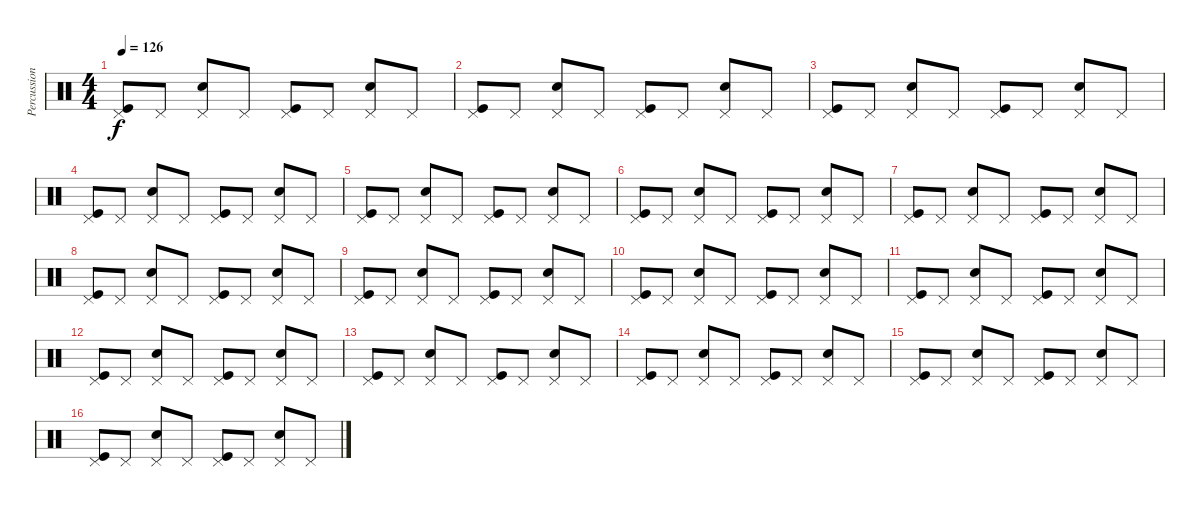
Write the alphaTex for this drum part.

\track ("Percussion" "Percussion") {instrument percussion}
\staff {score}
\articulation defaults
\ts (4 4)
\tempo 126
\clef neutral
\ks c
("Pedal Hi-Hat (hit)" "Kick (hit)").8{dy f} "Pedal Hi-Hat (hit)".8 ("Pedal Hi-Hat (hit)" "Snare (hit) 2").8 "Pedal Hi-Hat (hit)".8 ("Pedal Hi-Hat (hit)" "Kick (hit)").8 "Pedal Hi-Hat (hit)".8 ("Pedal Hi-Hat (hit)" "Snare (hit) 2").8 "Pedal Hi-Hat (hit)".8 |
("Pedal Hi-Hat (hit)" "Kick (hit)").8 "Pedal Hi-Hat (hit)".8 ("Pedal Hi-Hat (hit)" "Snare (hit) 2").8 "Pedal Hi-Hat (hit)".8 ("Pedal Hi-Hat (hit)" "Kick (hit)").8 "Pedal Hi-Hat (hit)".8 ("Pedal Hi-Hat (hit)" "Snare (hit) 2").8 "Pedal Hi-Hat (hit)".8 |
("Pedal Hi-Hat (hit)" "Kick (hit)").8 "Pedal Hi-Hat (hit)".8 ("Pedal Hi-Hat (hit)" "Snare (hit) 2").8 "Pedal Hi-Hat (hit)".8 ("Pedal Hi-Hat (hit)" "Kick (hit)").8 "Pedal Hi-Hat (hit)".8 ("Pedal Hi-Hat (hit)" "Snare (hit) 2").8 "Pedal Hi-Hat (hit)".8 |
("Pedal Hi-Hat (hit)" "Kick (hit)").8 "Pedal Hi-Hat (hit)".8 ("Pedal Hi-Hat (hit)" "Snare (hit) 2").8 "Pedal Hi-Hat (hit)".8 ("Pedal Hi-Hat (hit)" "Kick (hit)").8 "Pedal Hi-Hat (hit)".8 ("Pedal Hi-Hat (hit)" "Snare (hit) 2").8 "Pedal Hi-Hat (hit)".8 |
("Pedal Hi-Hat (hit)" "Kick (hit)").8 "Pedal Hi-Hat (hit)".8 ("Pedal Hi-Hat (hit)" "Snare (hit) 2").8 "Pedal Hi-Hat (hit)".8 ("Pedal Hi-Hat (hit)" "Kick (hit)").8 "Pedal Hi-Hat (hit)".8 ("Pedal Hi-Hat (hit)" "Snare (hit) 2").8 "Pedal Hi-Hat (hit)".8 |
("Pedal Hi-Hat (hit)" "Kick (hit)").8 "Pedal Hi-Hat (hit)".8 ("Pedal Hi-Hat (hit)" "Snare (hit) 2").8 "Pedal Hi-Hat (hit)".8 ("Pedal Hi-Hat (hit)" "Kick (hit)").8 "Pedal Hi-Hat (hit)".8 ("Pedal Hi-Hat (hit)" "Snare (hit) 2").8 "Pedal Hi-Hat (hit)".8 |
("Pedal Hi-Hat (hit)" "Kick (hit)").8 "Pedal Hi-Hat (hit)".8 ("Pedal Hi-Hat (hit)" "Snare (hit) 2").8 "Pedal Hi-Hat (hit)".8 ("Pedal Hi-Hat (hit)" "Kick (hit)").8 "Pedal Hi-Hat (hit)".8 ("Pedal Hi-Hat (hit)" "Snare (hit) 2").8 "Pedal Hi-Hat (hit)".8 |
("Pedal Hi-Hat (hit)" "Kick (hit)").8 "Pedal Hi-Hat (hit)".8 ("Pedal Hi-Hat (hit)" "Snare (hit) 2").8 "Pedal Hi-Hat (hit)".8 ("Pedal Hi-Hat (hit)" "Kick (hit)").8 "Pedal Hi-Hat (hit)".8 ("Pedal Hi-Hat (hit)" "Snare (hit) 2").8 "Pedal Hi-Hat (hit)".8 |
("Pedal Hi-Hat (hit)" "Kick (hit)").8 "Pedal Hi-Hat (hit)".8 ("Pedal Hi-Hat (hit)" "Snare (hit) 2").8 "Pedal Hi-Hat (hit)".8 ("Pedal Hi-Hat (hit)" "Kick (hit)").8 "Pedal Hi-Hat (hit)".8 ("Pedal Hi-Hat (hit)" "Snare (hit) 2").8 "Pedal Hi-Hat (hit)".8 |
("Pedal Hi-Hat (hit)" "Kick (hit)").8 "Pedal Hi-Hat (hit)".8 ("Pedal Hi-Hat (hit)" "Snare (hit) 2").8 "Pedal Hi-Hat (hit)".8 ("Pedal Hi-Hat (hit)" "Kick (hit)").8 "Pedal Hi-Hat (hit)".8 ("Pedal Hi-Hat (hit)" "Snare (hit) 2").8 "Pedal Hi-Hat (hit)".8 |
("Pedal Hi-Hat (hit)" "Kick (hit)").8 "Pedal Hi-Hat (hit)".8 ("Pedal Hi-Hat (hit)" "Snare (hit) 2").8 "Pedal Hi-Hat (hit)".8 ("Pedal Hi-Hat (hit)" "Kick (hit)").8 "Pedal Hi-Hat (hit)".8 ("Pedal Hi-Hat (hit)" "Snare (hit) 2").8 "Pedal Hi-Hat (hit)".8 |
("Pedal Hi-Hat (hit)" "Kick (hit)").8 "Pedal Hi-Hat (hit)".8 ("Pedal Hi-Hat (hit)" "Snare (hit) 2").8 "Pedal Hi-Hat (hit)".8 ("Pedal Hi-Hat (hit)" "Kick (hit)").8 "Pedal Hi-Hat (hit)".8 ("Pedal Hi-Hat (hit)" "Snare (hit) 2").8 "Pedal Hi-Hat (hit)".8 |
("Pedal Hi-Hat (hit)" "Kick (hit)").8 "Pedal Hi-Hat (hit)".8 ("Pedal Hi-Hat (hit)" "Snare (hit) 2").8 "Pedal Hi-Hat (hit)".8 ("Pedal Hi-Hat (hit)" "Kick (hit)").8 "Pedal Hi-Hat (hit)".8 ("Pedal Hi-Hat (hit)" "Snare (hit) 2").8 "Pedal Hi-Hat (hit)".8 |
("Pedal Hi-Hat (hit)" "Kick (hit)").8 "Pedal Hi-Hat (hit)".8 ("Pedal Hi-Hat (hit)" "Snare (hit) 2").8 "Pedal Hi-Hat (hit)".8 ("Pedal Hi-Hat (hit)" "Kick (hit)").8 "Pedal Hi-Hat (hit)".8 ("Pedal Hi-Hat (hit)" "Snare (hit) 2").8 "Pedal Hi-Hat (hit)".8 |
("Pedal Hi-Hat (hit)" "Kick (hit)").8 "Pedal Hi-Hat (hit)".8 ("Pedal Hi-Hat (hit)" "Snare (hit) 2").8 "Pedal Hi-Hat (hit)".8 ("Pedal Hi-Hat (hit)" "Kick (hit)").8 "Pedal Hi-Hat (hit)".8 ("Pedal Hi-Hat (hit)" "Snare (hit) 2").8 "Pedal Hi-Hat (hit)".8 |
("Pedal Hi-Hat (hit)" "Kick (hit)").8 "Pedal Hi-Hat (hit)".8 ("Pedal Hi-Hat (hit)" "Snare (hit) 2").8 "Pedal Hi-Hat (hit)".8 ("Pedal Hi-Hat (hit)" "Kick (hit)").8 "Pedal Hi-Hat (hit)".8 ("Pedal Hi-Hat (hit)" "Snare (hit) 2").8 "Pedal Hi-Hat (hit)".8
